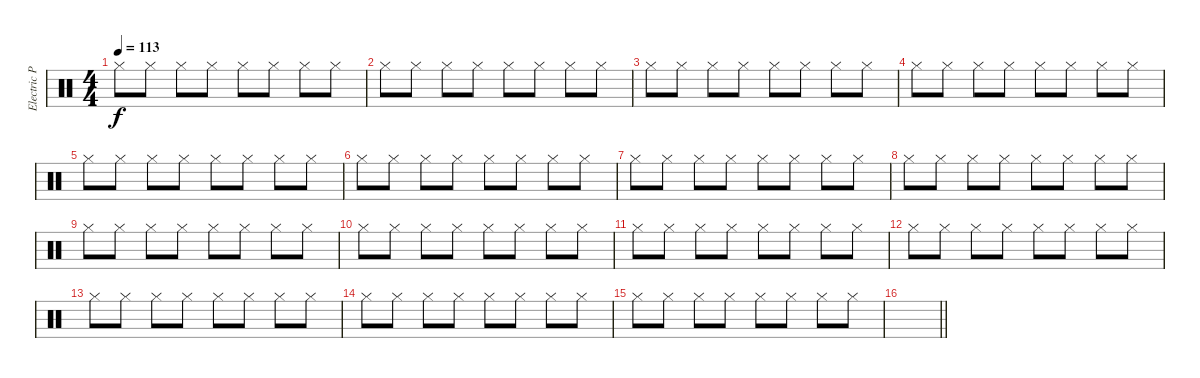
\track ("Electric Percussion" "Electric P") {instrument percussion bank 3}
\staff {score}
\articulation defaults
\ts (4 4)
\tempo 113
\clef neutral
\ks c "Hi-Hat (closed)".8{dy f} "Hi-Hat (closed)".8 "Hi-Hat (closed)".8 "Hi-Hat (closed)".8 "Hi-Hat (closed)".8 "Hi-Hat (closed)".8 "Hi-Hat (closed)".8 "Hi-Hat (closed)".8
|
"Hi-Hat (closed)".8 "Hi-Hat (closed)".8 "Hi-Hat (closed)".8 "Hi-Hat (closed)".8 "Hi-Hat (closed)".8 "Hi-Hat (closed)".8 "Hi-Hat (closed)".8 "Hi-Hat (closed)".8 |
"Hi-Hat (closed)".8 "Hi-Hat (closed)".8 "Hi-Hat (closed)".8 "Hi-Hat (closed)".8 "Hi-Hat (closed)".8 "Hi-Hat (closed)".8 "Hi-Hat (closed)".8 "Hi-Hat (closed)".8 |
"Hi-Hat (closed)".8 "Hi-Hat (closed)".8 "Hi-Hat (closed)".8 "Hi-Hat (closed)".8 "Hi-Hat (closed)".8 "Hi-Hat (closed)".8 "Hi-Hat (closed)".8 "Hi-Hat (closed)".8 |
"Hi-Hat (closed)".8 "Hi-Hat (closed)".8 "Hi-Hat (closed)".8 "Hi-Hat (closed)".8 "Hi-Hat (closed)".8 "Hi-Hat (closed)".8 "Hi-Hat (closed)".8 "Hi-Hat (closed)".8 |
"Hi-Hat (closed)".8 "Hi-Hat (closed)".8 "Hi-Hat (closed)".8 "Hi-Hat (closed)".8 "Hi-Hat (closed)".8 "Hi-Hat (closed)".8 "Hi-Hat (closed)".8 "Hi-Hat (closed)".8 |
"Hi-Hat (closed)".8 "Hi-Hat (closed)".8 "Hi-Hat (closed)".8 "Hi-Hat (closed)".8 "Hi-Hat (closed)".8 "Hi-Hat (closed)".8 "Hi-Hat (closed)".8 "Hi-Hat (closed)".8 |
"Hi-Hat (closed)".8 "Hi-Hat (closed)".8 "Hi-Hat (closed)".8 "Hi-Hat (closed)".8 "Hi-Hat (closed)".8 "Hi-Hat (closed)".8 "Hi-Hat (closed)".8 "Hi-Hat (closed)".8 |
"Hi-Hat (closed)".8 "Hi-Hat (closed)".8 "Hi-Hat (closed)".8 "Hi-Hat (closed)".8 "Hi-Hat (closed)".8 "Hi-Hat (closed)".8 "Hi-Hat (closed)".8 "Hi-Hat (closed)".8 |
"Hi-Hat (closed)".8 "Hi-Hat (closed)".8 "Hi-Hat (closed)".8 "Hi-Hat (closed)".8 "Hi-Hat (closed)".8 "Hi-Hat (closed)".8 "Hi-Hat (closed)".8 "Hi-Hat (closed)".8 |
"Hi-Hat (closed)".8 "Hi-Hat (closed)".8 "Hi-Hat (closed)".8 "Hi-Hat (closed)".8 "Hi-Hat (closed)".8 "Hi-Hat (closed)".8 "Hi-Hat (closed)".8 "Hi-Hat (closed)".8 |
"Hi-Hat (closed)".8 "Hi-Hat (closed)".8 "Hi-Hat (closed)".8 "Hi-Hat (closed)".8 "Hi-Hat (closed)".8 "Hi-Hat (closed)".8 "Hi-Hat (closed)".8 "Hi-Hat (closed)".8 |
"Hi-Hat (closed)".8 "Hi-Hat (closed)".8 "Hi-Hat (closed)".8 "Hi-Hat (closed)".8 "Hi-Hat (closed)".8 "Hi-Hat (closed)".8 "Hi-Hat (closed)".8 "Hi-Hat (closed)".8 |
"Hi-Hat (closed)".8 "Hi-Hat (closed)".8 "Hi-Hat (closed)".8 "Hi-Hat (closed)".8 "Hi-Hat (closed)".8 "Hi-Hat (closed)".8 "Hi-Hat (closed)".8 "Hi-Hat (closed)".8 |
"Hi-Hat (closed)".8 "Hi-Hat (closed)".8 "Hi-Hat (closed)".8 "Hi-Hat (closed)".8 "Hi-Hat (closed)".8 "Hi-Hat (closed)".8 "Hi-Hat (closed)".8 "Hi-Hat (closed)".8 |
\barLineRight lightlight
